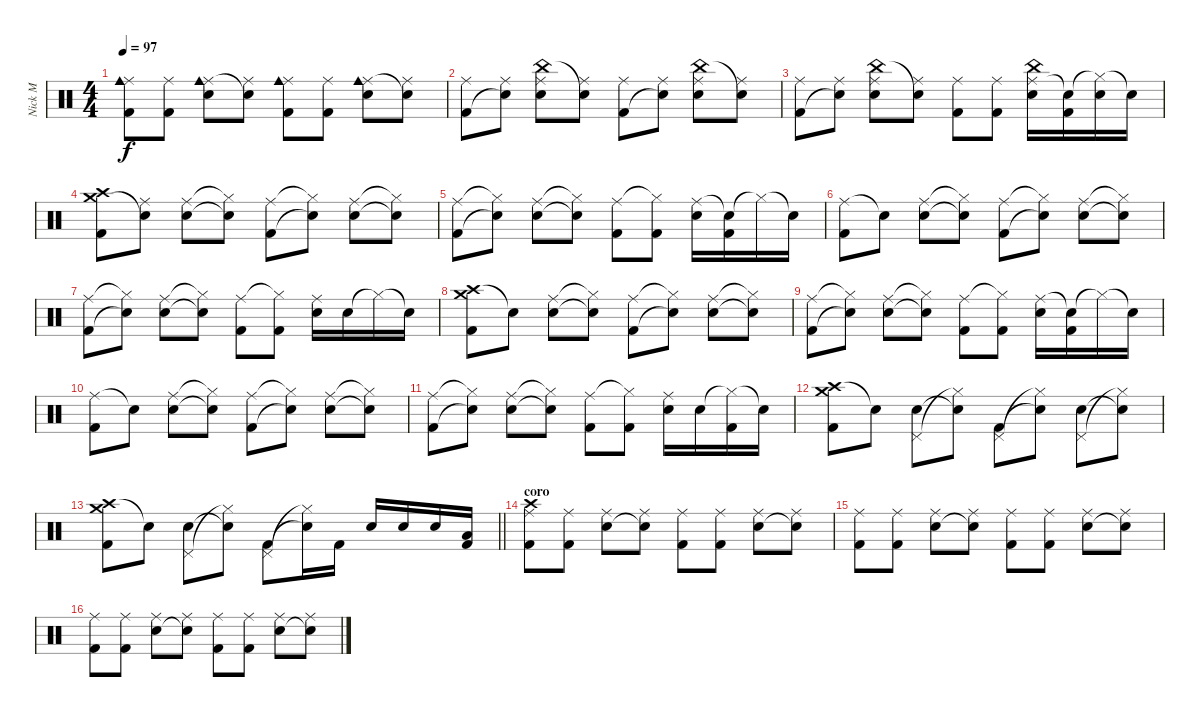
\track ("Nick M" "Nick M") {instrument percussion}
\staff {score}
\articulation defaults
\ts (4 4)
\tempo 97
\clef neutral
\ks c
("Ride (middle)" "Cowbell medium (hit)" "Kick (hit) 2").8{dy f} ("Ride (middle)" "Kick (hit) 2").8 ("Ride (middle)" "Cowbell medium (hit)" "Snare (hit) 2").8 ("Ride (middle)" "Snare (hit)"{t}).8 ("Ride (middle)" "Cowbell medium (hit)" "Kick (hit) 2").8 ("Ride (middle)" "Kick (hit) 2").8 ("Ride (middle)" "Cowbell medium (hit)" "Snare (hit) 2").8 ("Ride (middle)" "Snare (hit)"{t}).8 |
("Ride (middle)" "Kick (hit) 2").8 ("Ride (middle)" "Snare (hit)"{t}).8 ("Ride (middle)" "China (hit)" "Snare (hit) 2").8 ("Ride (middle)" "Snare (hit)"{t}).8 ("Ride (middle)" "Kick (hit) 2").8 ("Ride (middle)" "Snare (hit)"{t}).8 ("Ride (middle)" "China (hit)" "Snare (hit) 2").8 ("Ride (middle)" "Snare (hit)"{t}).8 |
("Ride (middle)" "Kick (hit) 2").8 ("Ride (middle)" "Snare (hit)"{t}).8 ("Ride (middle)" "China (hit)" "Snare (hit) 2").8 ("Ride (middle)" "Snare (hit)"{t}).8 ("Ride (middle)" "Kick (hit) 2").8 ("Ride (middle)" "Kick (hit) 2").8 ("Ride (middle)" "China (hit)" "Snare (hit) 2").16 ("Snare (hit)"{t} "Kick (hit) 2").16 ("Hi-Hat (closed)"{t} "Snare (hit) 2").16 "Snare (hit)"{t}.16 |
("Crash high (hit)" "Crash medium (hit)" "Kick (hit) 2").8 ("Ride (middle)" "Snare (hit)"{t}).8 ("Ride (middle)" "Snare (hit) 2").8 ("Hi-Hat (closed)"{t} "Snare (hit)"{t}).8 ("Ride (middle)" "Kick (hit) 2").8 ("Hi-Hat (closed)"{t} "Snare (hit)"{t}).8 ("Ride (middle)" "Snare (hit) 2").8 ("Hi-Hat (closed)"{t} "Snare (hit)"{t}).8 |
("Ride (middle)" "Kick (hit) 2").8 ("Hi-Hat (closed)"{t} "Snare (hit)"{t}).8 ("Ride (middle)" "Snare (hit) 2").8 ("Hi-Hat (closed)"{t} "Snare (hit)"{t}).8 ("Ride (middle)" "Kick (hit) 2").8 ("Hi-Hat (closed)"{t} "Kick (hit) 2").8 ("Ride (middle)" "Snare (hit) 2").16 ("Snare (hit)"{t} "Kick (hit) 2").16 "Hi-Hat (closed)"{t}.16 "Snare (hit)"{t}.16 |
("Ride (middle)" "Kick (hit) 2").8 "Snare (hit)"{t}.8 ("Ride (middle)" "Snare (hit) 2").8 ("Hi-Hat (closed)"{t} "Snare (hit)"{t}).8 ("Ride (middle)" "Kick (hit) 2").8 ("Hi-Hat (closed)"{t} "Snare (hit)"{t}).8 ("Ride (middle)" "Snare (hit) 2").8 ("Hi-Hat (closed)"{t} "Snare (hit)"{t}).8 |
("Ride (middle)" "Kick (hit) 2").8 ("Hi-Hat (closed)"{t} "Snare (hit)"{t}).8 ("Ride (middle)" "Snare (hit) 2").8 ("Hi-Hat (closed)"{t} "Snare (hit)"{t}).8 ("Ride (middle)" "Kick (hit) 2").8 ("Hi-Hat (closed)"{t} "Kick (hit) 2").8 ("Ride (middle)" "Snare (hit) 2").16 "Snare (hit) 2".16 "Hi-Hat (closed)"{t}.16 "Snare (hit)"{t}.16 |
("Crash high (hit)" "Crash medium (hit)" "Kick (hit) 2").8 "Snare (hit)"{t}.8 ("Ride (middle)" "Snare (hit) 2").8 ("Hi-Hat (closed)"{t} "Snare (hit)"{t}).8 ("Ride (middle)" "Kick (hit) 2").8 ("Hi-Hat (closed)"{t} "Snare (hit)"{t}).8 ("Ride (middle)" "Snare (hit) 2").8 ("Hi-Hat (closed)"{t} "Snare (hit)"{t}).8 |
("Ride (middle)" "Kick (hit) 2").8 ("Hi-Hat (closed)"{t} "Snare (hit)"{t}).8 ("Ride (middle)" "Snare (hit) 2").8 ("Hi-Hat (closed)"{t} "Snare (hit)"{t}).8 ("Ride (middle)" "Kick (hit) 2").8 ("Hi-Hat (closed)"{t} "Kick (hit) 2").8 ("Ride (middle)" "Snare (hit) 2").16 ("Snare (hit)"{t} "Kick (hit) 2").16 "Hi-Hat (closed)"{t}.16 "Snare (hit)"{t}.16 |
("Ride (middle)" "Kick (hit) 2").8 "Snare (hit)"{t}.8 ("Ride (middle)" "Snare (hit) 2").8 ("Hi-Hat (closed)"{t} "Snare (hit)"{t}).8 ("Ride (middle)" "Kick (hit) 2").8 ("Hi-Hat (closed)"{t} "Snare (hit)"{t}).8 ("Ride (middle)" "Snare (hit) 2").8 ("Hi-Hat (closed)"{t} "Snare (hit)"{t}).8 |
("Ride (middle)" "Kick (hit) 2").8 ("Hi-Hat (closed)"{t} "Snare (hit)"{t}).8 ("Ride (middle)" "Snare (hit) 2").8 ("Hi-Hat (closed)"{t} "Snare (hit)"{t}).8 ("Ride (middle)" "Kick (hit) 2").8 ("Hi-Hat (closed)"{t} "Kick (hit) 2").8 ("Ride (middle)" "Snare (hit) 2").16 "Snare (hit) 2".16 ("Hi-Hat (closed)"{t} "Kick (hit) 2").16 "Snare (hit)"{t}.16 |
("Crash high (hit)" "Crash medium (hit)" "Kick (hit) 2").8 "Snare (hit)"{t}.8 ("Pedal Hi-Hat (hit)" "Snare (hit) 2").8 ("Hi-Hat (closed)"{t} "Snare (hit)"{t}).8 ("Pedal Hi-Hat (hit)" "Kick (hit) 2").8 ("Hi-Hat (closed)"{t} "Snare (hit)"{t}).8 ("Pedal Hi-Hat (hit)" "Snare (hit) 2").8 ("Hi-Hat (closed)"{t} "Snare (hit)"{t}).8 |
\barLineRight lightlight
("Crash high (hit)" "Crash medium (hit)" "Kick (hit) 2").8 "Snare (hit)"{t}.8 ("Pedal Hi-Hat (hit)" "Snare (hit) 2").8 ("Hi-Hat (closed)"{t} "Snare (hit)"{t}).8 ("Pedal Hi-Hat (hit)" "Kick (hit) 2").8 ("Hi-Hat (closed)"{t} "Snare (hit)"{t}).16 "Kick (hit) 2".16 "Snare (hit) 2".16 "Snare (hit) 2".16 "Snare (hit) 2".16 ("Low Floor Tom (hit)" "Kick (hit) 2").16 |
\section ("" "coro")
("Ride (middle)" "Crash high (hit)" "Kick (hit) 2").8 ("Ride (middle)" "Kick (hit) 2").8 ("Ride (middle)" "Snare (hit) 2").8 ("Ride (middle)" "Snare (hit)"{t}).8 ("Ride (middle)" "Kick (hit) 2").8 ("Ride (middle)" "Kick (hit) 2").8 ("Ride (middle)" "Snare (hit) 2").8 ("Ride (middle)" "Snare (hit)"{t}).8 |
("Ride (middle)" "Kick (hit) 2").8 ("Ride (middle)" "Kick (hit) 2").8 ("Ride (middle)" "Snare (hit) 2").8 ("Ride (middle)" "Snare (hit)"{t}).8 ("Ride (middle)" "Kick (hit) 2").8 ("Ride (middle)" "Kick (hit) 2").8 ("Ride (middle)" "Snare (hit) 2").8 ("Ride (middle)" "Snare (hit)"{t}).8 |
("Ride (middle)" "Kick (hit) 2").8 ("Ride (middle)" "Kick (hit) 2").8 ("Ride (middle)" "Snare (hit) 2").8 ("Ride (middle)" "Snare (hit)"{t}).8 ("Ride (middle)" "Kick (hit) 2").8 ("Ride (middle)" "Kick (hit) 2").8 ("Ride (middle)" "Snare (hit) 2").8 ("Ride (middle)" "Snare (hit)"{t}).8
